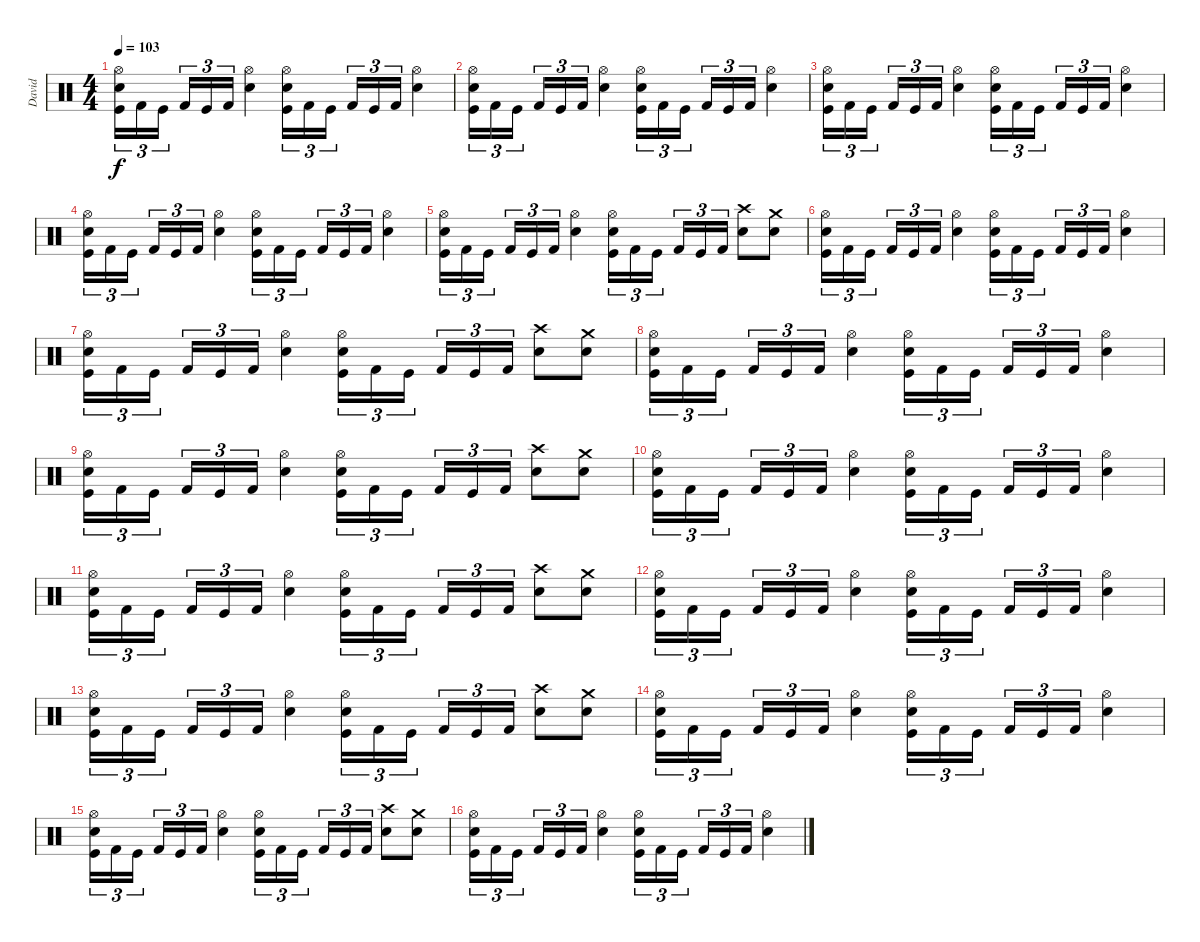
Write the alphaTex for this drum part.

\track ("David" "David") {instrument percussion}
\staff {score}
\articulation defaults
\ts (4 4)
\tempo 103
\clef neutral
\ks c
("Hi-Hat (open)" "Kick (hit)" "Snare (hit) 2").16{tu (3 2) dy f} "Kick (hit) 2".16{tu (3 2)} "Kick (hit)".16{tu (3 2)} "Kick (hit) 2".16{tu (3 2)} "Kick (hit)".16{tu (3 2)} "Kick (hit) 2".16{tu (3 2)} ("Hi-Hat (open)" "Snare (hit) 2").4 ("Hi-Hat (open)" "Kick (hit)" "Snare (hit) 2").16{tu (3 2)} "Kick (hit) 2".16{tu (3 2)} "Kick (hit)".16{tu (3 2)} "Kick (hit) 2".16{tu (3 2)} "Kick (hit)".16{tu (3 2)} "Kick (hit) 2".16{tu (3 2)} ("Hi-Hat (open)" "Snare (hit) 2").4 |
("Hi-Hat (open)" "Kick (hit)" "Snare (hit) 2").16{tu (3 2)} "Kick (hit) 2".16{tu (3 2)} "Kick (hit)".16{tu (3 2)} "Kick (hit) 2".16{tu (3 2)} "Kick (hit)".16{tu (3 2)} "Kick (hit) 2".16{tu (3 2)} ("Hi-Hat (open)" "Snare (hit) 2").4 ("Hi-Hat (open)" "Kick (hit)" "Snare (hit) 2").16{tu (3 2)} "Kick (hit) 2".16{tu (3 2)} "Kick (hit)".16{tu (3 2)} "Kick (hit) 2".16{tu (3 2)} "Kick (hit)".16{tu (3 2)} "Kick (hit) 2".16{tu (3 2)} ("Hi-Hat (open)" "Snare (hit) 2").4 |
("Hi-Hat (open)" "Kick (hit)" "Snare (hit) 2").16{tu (3 2)} "Kick (hit) 2".16{tu (3 2)} "Kick (hit)".16{tu (3 2)} "Kick (hit) 2".16{tu (3 2)} "Kick (hit)".16{tu (3 2)} "Kick (hit) 2".16{tu (3 2)} ("Hi-Hat (open)" "Snare (hit) 2").4 ("Hi-Hat (open)" "Kick (hit)" "Snare (hit) 2").16{tu (3 2)} "Kick (hit) 2".16{tu (3 2)} "Kick (hit)".16{tu (3 2)} "Kick (hit) 2".16{tu (3 2)} "Kick (hit)".16{tu (3 2)} "Kick (hit) 2".16{tu (3 2)} ("Hi-Hat (open)" "Snare (hit) 2").4 |
("Hi-Hat (open)" "Kick (hit)" "Snare (hit) 2").16{tu (3 2)} "Kick (hit) 2".16{tu (3 2)} "Kick (hit)".16{tu (3 2)} "Kick (hit) 2".16{tu (3 2)} "Kick (hit)".16{tu (3 2)} "Kick (hit) 2".16{tu (3 2)} ("Hi-Hat (open)" "Snare (hit) 2").4 ("Hi-Hat (open)" "Kick (hit)" "Snare (hit) 2").16{tu (3 2)} "Kick (hit) 2".16{tu (3 2)} "Kick (hit)".16{tu (3 2)} "Kick (hit) 2".16{tu (3 2)} "Kick (hit)".16{tu (3 2)} "Kick (hit) 2".16{tu (3 2)} ("Hi-Hat (open)" "Snare (hit) 2").4 |
("Hi-Hat (open)" "Kick (hit)" "Snare (hit) 2").16{tu (3 2)} "Kick (hit) 2".16{tu (3 2)} "Kick (hit)".16{tu (3 2)} "Kick (hit) 2".16{tu (3 2)} "Kick (hit)".16{tu (3 2)} "Kick (hit) 2".16{tu (3 2)} ("Hi-Hat (open)" "Snare (hit) 2").4 ("Hi-Hat (open)" "Kick (hit)" "Snare (hit) 2").16{tu (3 2)} "Kick (hit) 2".16{tu (3 2)} "Kick (hit)".16{tu (3 2)} "Kick (hit) 2".16{tu (3 2)} "Kick (hit)".16{tu (3 2)} "Kick (hit) 2".16{tu (3 2)} ("Crash high (hit)" "Snare (hit) 2").8 ("Crash medium (hit)" "Snare (hit) 2").8 |
("Hi-Hat (open)" "Kick (hit)" "Snare (hit) 2").16{tu (3 2)} "Kick (hit) 2".16{tu (3 2)} "Kick (hit)".16{tu (3 2)} "Kick (hit) 2".16{tu (3 2)} "Kick (hit)".16{tu (3 2)} "Kick (hit) 2".16{tu (3 2)} ("Hi-Hat (open)" "Snare (hit) 2").4 ("Hi-Hat (open)" "Kick (hit)" "Snare (hit) 2").16{tu (3 2)} "Kick (hit) 2".16{tu (3 2)} "Kick (hit)".16{tu (3 2)} "Kick (hit) 2".16{tu (3 2)} "Kick (hit)".16{tu (3 2)} "Kick (hit) 2".16{tu (3 2)} ("Hi-Hat (open)" "Snare (hit) 2").4 |
("Hi-Hat (open)" "Kick (hit)" "Snare (hit) 2").16{tu (3 2)} "Kick (hit) 2".16{tu (3 2)} "Kick (hit)".16{tu (3 2)} "Kick (hit) 2".16{tu (3 2)} "Kick (hit)".16{tu (3 2)} "Kick (hit) 2".16{tu (3 2)} ("Hi-Hat (open)" "Snare (hit) 2").4 ("Hi-Hat (open)" "Kick (hit)" "Snare (hit) 2").16{tu (3 2)} "Kick (hit) 2".16{tu (3 2)} "Kick (hit)".16{tu (3 2)} "Kick (hit) 2".16{tu (3 2)} "Kick (hit)".16{tu (3 2)} "Kick (hit) 2".16{tu (3 2)} ("Crash high (hit)" "Snare (hit) 2").8 ("Crash medium (hit)" "Snare (hit) 2").8 |
("Hi-Hat (open)" "Kick (hit)" "Snare (hit) 2").16{tu (3 2)} "Kick (hit) 2".16{tu (3 2)} "Kick (hit)".16{tu (3 2)} "Kick (hit) 2".16{tu (3 2)} "Kick (hit)".16{tu (3 2)} "Kick (hit) 2".16{tu (3 2)} ("Hi-Hat (open)" "Snare (hit) 2").4 ("Hi-Hat (open)" "Kick (hit)" "Snare (hit) 2").16{tu (3 2)} "Kick (hit) 2".16{tu (3 2)} "Kick (hit)".16{tu (3 2)} "Kick (hit) 2".16{tu (3 2)} "Kick (hit)".16{tu (3 2)} "Kick (hit) 2".16{tu (3 2)} ("Hi-Hat (open)" "Snare (hit) 2").4 |
("Hi-Hat (open)" "Kick (hit)" "Snare (hit) 2").16{tu (3 2)} "Kick (hit) 2".16{tu (3 2)} "Kick (hit)".16{tu (3 2)} "Kick (hit) 2".16{tu (3 2)} "Kick (hit)".16{tu (3 2)} "Kick (hit) 2".16{tu (3 2)} ("Hi-Hat (open)" "Snare (hit) 2").4 ("Hi-Hat (open)" "Kick (hit)" "Snare (hit) 2").16{tu (3 2)} "Kick (hit) 2".16{tu (3 2)} "Kick (hit)".16{tu (3 2)} "Kick (hit) 2".16{tu (3 2)} "Kick (hit)".16{tu (3 2)} "Kick (hit) 2".16{tu (3 2)} ("Crash high (hit)" "Snare (hit) 2").8 ("Crash medium (hit)" "Snare (hit) 2").8 |
("Hi-Hat (open)" "Kick (hit)" "Snare (hit) 2").16{tu (3 2)} "Kick (hit) 2".16{tu (3 2)} "Kick (hit)".16{tu (3 2)} "Kick (hit) 2".16{tu (3 2)} "Kick (hit)".16{tu (3 2)} "Kick (hit) 2".16{tu (3 2)} ("Hi-Hat (open)" "Snare (hit) 2").4 ("Hi-Hat (open)" "Kick (hit)" "Snare (hit) 2").16{tu (3 2)} "Kick (hit) 2".16{tu (3 2)} "Kick (hit)".16{tu (3 2)} "Kick (hit) 2".16{tu (3 2)} "Kick (hit)".16{tu (3 2)} "Kick (hit) 2".16{tu (3 2)} ("Hi-Hat (open)" "Snare (hit) 2").4 |
("Hi-Hat (open)" "Kick (hit)" "Snare (hit) 2").16{tu (3 2)} "Kick (hit) 2".16{tu (3 2)} "Kick (hit)".16{tu (3 2)} "Kick (hit) 2".16{tu (3 2)} "Kick (hit)".16{tu (3 2)} "Kick (hit) 2".16{tu (3 2)} ("Hi-Hat (open)" "Snare (hit) 2").4 ("Hi-Hat (open)" "Kick (hit)" "Snare (hit) 2").16{tu (3 2)} "Kick (hit) 2".16{tu (3 2)} "Kick (hit)".16{tu (3 2)} "Kick (hit) 2".16{tu (3 2)} "Kick (hit)".16{tu (3 2)} "Kick (hit) 2".16{tu (3 2)} ("Crash high (hit)" "Snare (hit) 2").8 ("Crash medium (hit)" "Snare (hit) 2").8 |
("Hi-Hat (open)" "Kick (hit)" "Snare (hit) 2").16{tu (3 2)} "Kick (hit) 2".16{tu (3 2)} "Kick (hit)".16{tu (3 2)} "Kick (hit) 2".16{tu (3 2)} "Kick (hit)".16{tu (3 2)} "Kick (hit) 2".16{tu (3 2)} ("Hi-Hat (open)" "Snare (hit) 2").4 ("Hi-Hat (open)" "Kick (hit)" "Snare (hit) 2").16{tu (3 2)} "Kick (hit) 2".16{tu (3 2)} "Kick (hit)".16{tu (3 2)} "Kick (hit) 2".16{tu (3 2)} "Kick (hit)".16{tu (3 2)} "Kick (hit) 2".16{tu (3 2)} ("Hi-Hat (open)" "Snare (hit) 2").4 |
("Hi-Hat (open)" "Kick (hit)" "Snare (hit) 2").16{tu (3 2)} "Kick (hit) 2".16{tu (3 2)} "Kick (hit)".16{tu (3 2)} "Kick (hit) 2".16{tu (3 2)} "Kick (hit)".16{tu (3 2)} "Kick (hit) 2".16{tu (3 2)} ("Hi-Hat (open)" "Snare (hit) 2").4 ("Hi-Hat (open)" "Kick (hit)" "Snare (hit) 2").16{tu (3 2)} "Kick (hit) 2".16{tu (3 2)} "Kick (hit)".16{tu (3 2)} "Kick (hit) 2".16{tu (3 2)} "Kick (hit)".16{tu (3 2)} "Kick (hit) 2".16{tu (3 2)} ("Crash high (hit)" "Snare (hit) 2").8 ("Crash medium (hit)" "Snare (hit) 2").8 |
("Hi-Hat (open)" "Kick (hit)" "Snare (hit) 2").16{tu (3 2)} "Kick (hit) 2".16{tu (3 2)} "Kick (hit)".16{tu (3 2)} "Kick (hit) 2".16{tu (3 2)} "Kick (hit)".16{tu (3 2)} "Kick (hit) 2".16{tu (3 2)} ("Hi-Hat (open)" "Snare (hit) 2").4 ("Hi-Hat (open)" "Kick (hit)" "Snare (hit) 2").16{tu (3 2)} "Kick (hit) 2".16{tu (3 2)} "Kick (hit)".16{tu (3 2)} "Kick (hit) 2".16{tu (3 2)} "Kick (hit)".16{tu (3 2)} "Kick (hit) 2".16{tu (3 2)} ("Hi-Hat (open)" "Snare (hit) 2").4 |
("Hi-Hat (open)" "Kick (hit)" "Snare (hit) 2").16{tu (3 2)} "Kick (hit) 2".16{tu (3 2)} "Kick (hit)".16{tu (3 2)} "Kick (hit) 2".16{tu (3 2)} "Kick (hit)".16{tu (3 2)} "Kick (hit) 2".16{tu (3 2)} ("Hi-Hat (open)" "Snare (hit) 2").4 ("Hi-Hat (open)" "Kick (hit)" "Snare (hit) 2").16{tu (3 2)} "Kick (hit) 2".16{tu (3 2)} "Kick (hit)".16{tu (3 2)} "Kick (hit) 2".16{tu (3 2)} "Kick (hit)".16{tu (3 2)} "Kick (hit) 2".16{tu (3 2)} ("Crash high (hit)" "Snare (hit) 2").8 ("Crash medium (hit)" "Snare (hit) 2").8 |
("Hi-Hat (open)" "Kick (hit)" "Snare (hit) 2").16{tu (3 2)} "Kick (hit) 2".16{tu (3 2)} "Kick (hit)".16{tu (3 2)} "Kick (hit) 2".16{tu (3 2)} "Kick (hit)".16{tu (3 2)} "Kick (hit) 2".16{tu (3 2)} ("Hi-Hat (open)" "Snare (hit) 2").4 ("Hi-Hat (open)" "Kick (hit)" "Snare (hit) 2").16{tu (3 2)} "Kick (hit) 2".16{tu (3 2)} "Kick (hit)".16{tu (3 2)} "Kick (hit) 2".16{tu (3 2)} "Kick (hit)".16{tu (3 2)} "Kick (hit) 2".16{tu (3 2)} ("Hi-Hat (open)" "Snare (hit) 2").4
